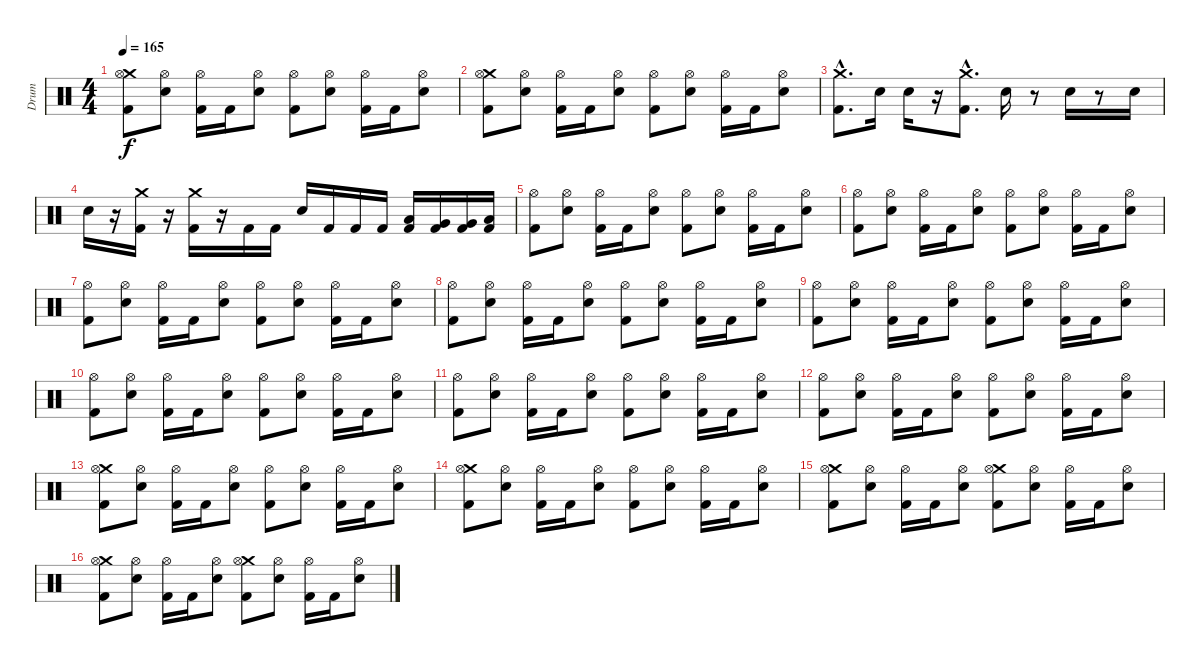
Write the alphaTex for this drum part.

\track ("Drum" "Drum") {instrument percussion}
\staff {score}
\articulation defaults
\ts (4 4)
\tempo 165
\clef neutral
\ks c
("Crash medium (hit)" "Hi-Hat (open)" "Kick (hit) 2").8{dy f} ("Hi-Hat (open)" "Electric Snare (hit)").8 ("Hi-Hat (open)" "Kick (hit) 2").16 "Kick (hit) 2".16 ("Hi-Hat (open)" "Electric Snare (hit)").8 ("Hi-Hat (open)" "Kick (hit) 2").8 ("Hi-Hat (open)" "Electric Snare (hit)").8 ("Hi-Hat (open)" "Kick (hit) 2").16 "Kick (hit) 2".16 ("Hi-Hat (open)" "Electric Snare (hit)").8 |
("Crash medium (hit)" "Hi-Hat (open)" "Kick (hit) 2").8 ("Hi-Hat (open)" "Electric Snare (hit)").8 ("Hi-Hat (open)" "Kick (hit) 2").16 "Kick (hit) 2".16 ("Hi-Hat (open)" "Electric Snare (hit)").8 ("Hi-Hat (open)" "Kick (hit) 2").8 ("Hi-Hat (open)" "Electric Snare (hit)").8 ("Hi-Hat (open)" "Kick (hit) 2").16 "Kick (hit) 2".16 ("Hi-Hat (open)" "Electric Snare (hit)").8 |
("Kick (hit) 2" "Crash medium (hit)"{hac}).8{d} "Electric Snare (hit)".16 "Electric Snare (hit)".16 r.16 ("Kick (hit) 2"{hac} "Crash medium (hit)"{hac}).8{d} "Electric Snare (hit)".16 r.8 "Electric Snare (hit)".16 r.8 "Electric Snare (hit)".16 |
"Electric Snare (hit)".16 r.16 ("Kick (hit) 2" "Crash medium (hit)").16 r.16 ("Kick (hit) 2" "Crash medium (hit)").16 r.16 "Kick (hit) 2".16 "Kick (hit) 2".16 "Electric Snare (hit)".16 "Kick (hit) 2".16 "Kick (hit) 2".16 "Kick (hit) 2".16 ("Kick (hit) 2" "Low Tom (hit)").16 ("Kick (hit) 2" "Very Low Tom (hit)").16 ("Kick (hit) 2" "Very Low Tom (hit)").16 ("Kick (hit) 2" "Low Floor Tom (hit)").16 |
("Hi-Hat (open)" "Kick (hit) 2").8 ("Hi-Hat (open)" "Electric Snare (hit)").8 ("Hi-Hat (open)" "Kick (hit) 2").16 "Kick (hit) 2".16 ("Hi-Hat (open)" "Electric Snare (hit)").8 ("Hi-Hat (open)" "Kick (hit) 2").8 ("Hi-Hat (open)" "Electric Snare (hit)").8 ("Hi-Hat (open)" "Kick (hit) 2").16 "Kick (hit) 2".16 ("Hi-Hat (open)" "Electric Snare (hit)").8 |
("Hi-Hat (open)" "Kick (hit) 2").8 ("Hi-Hat (open)" "Electric Snare (hit)").8 ("Hi-Hat (open)" "Kick (hit) 2").16 "Kick (hit) 2".16 ("Hi-Hat (open)" "Electric Snare (hit)").8 ("Hi-Hat (open)" "Kick (hit) 2").8 ("Hi-Hat (open)" "Electric Snare (hit)").8 ("Hi-Hat (open)" "Kick (hit) 2").16 "Kick (hit) 2".16 ("Hi-Hat (open)" "Electric Snare (hit)").8 |
("Hi-Hat (open)" "Kick (hit) 2").8 ("Hi-Hat (open)" "Electric Snare (hit)").8 ("Hi-Hat (open)" "Kick (hit) 2").16 "Kick (hit) 2".16 ("Hi-Hat (open)" "Electric Snare (hit)").8 ("Hi-Hat (open)" "Kick (hit) 2").8 ("Hi-Hat (open)" "Electric Snare (hit)").8 ("Hi-Hat (open)" "Kick (hit) 2").16 "Kick (hit) 2".16 ("Hi-Hat (open)" "Electric Snare (hit)").8 |
("Hi-Hat (open)" "Kick (hit) 2").8 ("Hi-Hat (open)" "Electric Snare (hit)").8 ("Hi-Hat (open)" "Kick (hit) 2").16 "Kick (hit) 2".16 ("Hi-Hat (open)" "Electric Snare (hit)").8 ("Hi-Hat (open)" "Kick (hit) 2").8 ("Hi-Hat (open)" "Electric Snare (hit)").8 ("Hi-Hat (open)" "Kick (hit) 2").16 "Kick (hit) 2".16 ("Hi-Hat (open)" "Electric Snare (hit)").8 |
("Hi-Hat (open)" "Kick (hit) 2").8 ("Hi-Hat (open)" "Electric Snare (hit)").8 ("Hi-Hat (open)" "Kick (hit) 2").16 "Kick (hit) 2".16 ("Hi-Hat (open)" "Electric Snare (hit)").8 ("Hi-Hat (open)" "Kick (hit) 2").8 ("Hi-Hat (open)" "Electric Snare (hit)").8 ("Hi-Hat (open)" "Kick (hit) 2").16 "Kick (hit) 2".16 ("Hi-Hat (open)" "Electric Snare (hit)").8 |
("Hi-Hat (open)" "Kick (hit) 2").8 ("Hi-Hat (open)" "Electric Snare (hit)").8 ("Hi-Hat (open)" "Kick (hit) 2").16 "Kick (hit) 2".16 ("Hi-Hat (open)" "Electric Snare (hit)").8 ("Hi-Hat (open)" "Kick (hit) 2").8 ("Hi-Hat (open)" "Electric Snare (hit)").8 ("Hi-Hat (open)" "Kick (hit) 2").16 "Kick (hit) 2".16 ("Hi-Hat (open)" "Electric Snare (hit)").8 |
("Hi-Hat (open)" "Kick (hit) 2").8 ("Hi-Hat (open)" "Electric Snare (hit)").8 ("Hi-Hat (open)" "Kick (hit) 2").16 "Kick (hit) 2".16 ("Hi-Hat (open)" "Electric Snare (hit)").8 ("Hi-Hat (open)" "Kick (hit) 2").8 ("Hi-Hat (open)" "Electric Snare (hit)").8 ("Hi-Hat (open)" "Kick (hit) 2").16 "Kick (hit) 2".16 ("Hi-Hat (open)" "Electric Snare (hit)").8 |
("Hi-Hat (open)" "Kick (hit) 2").8 ("Hi-Hat (open)" "Electric Snare (hit)").8 ("Hi-Hat (open)" "Kick (hit) 2").16 "Kick (hit) 2".16 ("Hi-Hat (open)" "Electric Snare (hit)").8 ("Hi-Hat (open)" "Kick (hit) 2").8 ("Hi-Hat (open)" "Electric Snare (hit)").8 ("Hi-Hat (open)" "Kick (hit) 2").16 "Kick (hit) 2".16 ("Hi-Hat (open)" "Electric Snare (hit)").8 |
("Crash medium (hit)" "Hi-Hat (open)" "Kick (hit) 2").8 ("Hi-Hat (open)" "Electric Snare (hit)").8 ("Hi-Hat (open)" "Kick (hit) 2").16 "Kick (hit) 2".16 ("Hi-Hat (open)" "Electric Snare (hit)").8 ("Hi-Hat (open)" "Kick (hit) 2").8 ("Hi-Hat (open)" "Electric Snare (hit)").8 ("Hi-Hat (open)" "Kick (hit) 2").16 "Kick (hit) 2".16 ("Hi-Hat (open)" "Electric Snare (hit)").8 |
("Crash medium (hit)" "Hi-Hat (open)" "Kick (hit) 2").8 ("Hi-Hat (open)" "Electric Snare (hit)").8 ("Hi-Hat (open)" "Kick (hit) 2").16 "Kick (hit) 2".16 ("Hi-Hat (open)" "Electric Snare (hit)").8 ("Hi-Hat (open)" "Kick (hit) 2").8 ("Hi-Hat (open)" "Electric Snare (hit)").8 ("Hi-Hat (open)" "Kick (hit) 2").16 "Kick (hit) 2".16 ("Hi-Hat (open)" "Electric Snare (hit)").8 |
("Crash medium (hit)" "Hi-Hat (open)" "Kick (hit) 2").8 ("Hi-Hat (open)" "Electric Snare (hit)").8 ("Hi-Hat (open)" "Kick (hit) 2").16 "Kick (hit) 2".16 ("Hi-Hat (open)" "Electric Snare (hit)").8 ("Crash medium (hit)" "Hi-Hat (open)" "Kick (hit) 2").8 ("Hi-Hat (open)" "Electric Snare (hit)").8 ("Hi-Hat (open)" "Kick (hit) 2").16 "Kick (hit) 2".16 ("Hi-Hat (open)" "Electric Snare (hit)").8 |
("Crash medium (hit)" "Hi-Hat (open)" "Kick (hit) 2").8 ("Hi-Hat (open)" "Electric Snare (hit)").8 ("Hi-Hat (open)" "Kick (hit) 2").16 "Kick (hit) 2".16 ("Hi-Hat (open)" "Electric Snare (hit)").8 ("Crash medium (hit)" "Hi-Hat (open)" "Kick (hit) 2").8 ("Hi-Hat (open)" "Electric Snare (hit)").8 ("Hi-Hat (open)" "Kick (hit) 2").16 "Kick (hit) 2".16 ("Hi-Hat (open)" "Electric Snare (hit)").8
